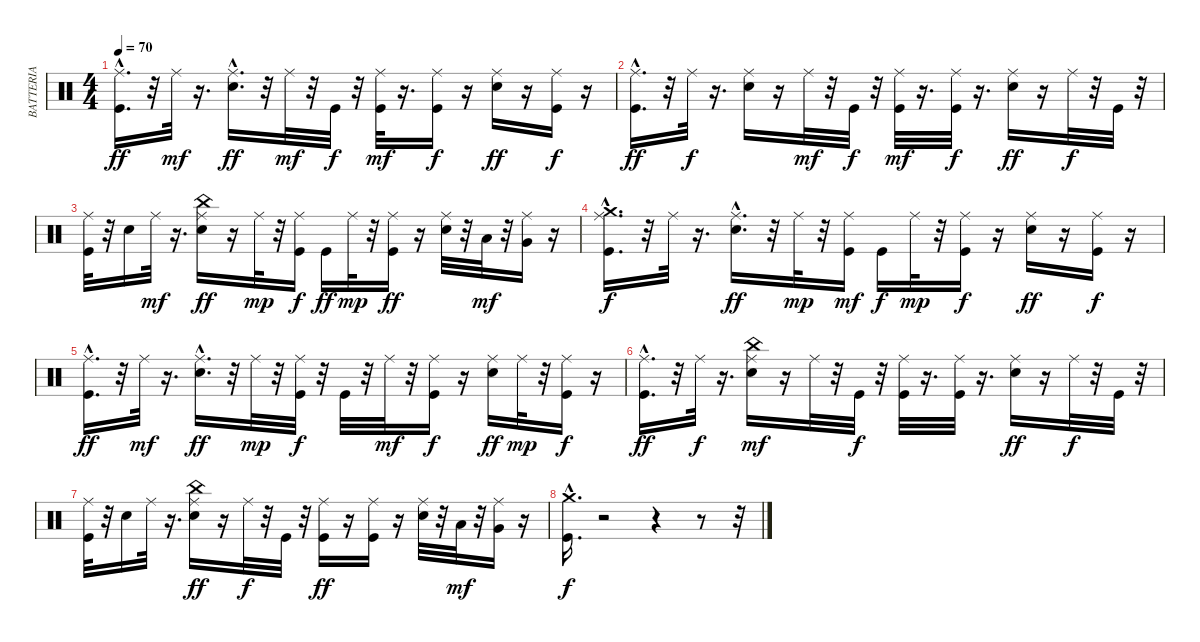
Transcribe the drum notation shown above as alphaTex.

\track ("BATTERIA" "BATTERIA") {instrument percussion}
\staff {score}
\articulation defaults
\ts (4 4)
\tempo 70
\clef neutral
\ks c
("Ride (middle)" "Kick (hit)"{hac}).16{d dy ff} r.32 "Ride (middle)".32{dy mf} r.16{d} ("Ride (middle)" "Snare (hit) 2"{hac}).16{d dy ff} r.32 "Ride (middle)".32{dy mf} r.32 "Kick (hit)".32{dy f} r.32 ("Ride (middle)" "Kick (hit)").32{dy mf} r.16{d} ("Ride (middle)" "Kick (hit)").16{dy f} r.16 ("Ride (middle)" "Snare (hit) 2").16{dy ff} r.16 ("Ride (middle)" "Kick (hit)").16{dy f} r.16 |
("Ride (middle)" "Kick (hit)"{hac}).16{d dy ff} r.32 "Ride (middle)".32{dy f} r.16{d} ("Ride (middle)" "Snare (hit) 2").16 r.16 "Ride (middle)".32{dy mf} r.32 "Kick (hit)".32{dy f} r.32 ("Ride (middle)" "Kick (hit)").32{dy mf} r.16{d} ("Ride (middle)" "Kick (hit)").32{dy f} r.16{d} ("Ride (middle)" "Snare (hit) 2").16{dy ff} r.16 "Ride (middle)".32{dy f} r.32 "Kick (hit)".32 r.32 |
("Ride (middle)" "Kick (hit)").32 r.32 "Snare (hit) 2".16 "Ride (middle)".32{dy mf} r.16{d} ("Ride (middle)" "China (hit)" "Snare (hit) 2").16{dy ff} r.16 "Ride (middle)".32{dy mp} r.32 ("Ride (middle)" "Kick (hit)").16{dy f} "Kick (hit)".16{dy ff} "Ride (middle)".32{dy mp} r.32 ("Ride (middle)" "Kick (hit)").16{dy ff} r.16 ("Ride (middle)" "Snare (hit) 2").32 r.32 "Low Tom (hit)".32{dy mf} r.32 ("Ride (middle)" "Very Low Tom (hit)").16 r.16 |
("Ride (middle)" "Kick (hit)"{hac} "Crash medium (hit)"{hac}).16{d dy f} r.32 "Ride (middle)".32 r.16{d} ("Ride (middle)" "Snare (hit) 2"{hac}).16{d dy ff} r.32 "Ride (middle)".32{dy mp} r.32 ("Ride (middle)" "Kick (hit)").16{dy mf} "Kick (hit)".16{dy f} "Ride (middle)".32{dy mp} r.32 ("Ride (middle)" "Kick (hit)").16{dy f} r.16 ("Ride (middle)" "Snare (hit) 2").16{dy ff} r.16 ("Ride (middle)" "Kick (hit)").16{dy f} r.16 |
("Ride (middle)" "Kick (hit)"{hac}).16{d dy ff} r.32 "Ride (middle)".32{dy mf} r.16{d} ("Ride (middle)" "Snare (hit) 2"{hac}).16{d dy ff} r.32 "Ride (middle)".32{dy mp} r.32 ("Ride (middle)" "Kick (hit)").32{dy f} r.32 "Kick (hit)".32 r.32 "Ride (middle)".32{dy mf} r.32 ("Ride (middle)" "Kick (hit)").16{dy f} r.16 ("Ride (middle)" "Snare (hit) 2").16{dy ff} "Ride (middle)".32{dy mp} r.32 ("Ride (middle)" "Kick (hit)").16{dy f} r.16 |
("Ride (middle)" "Kick (hit)"{hac}).16{d dy ff} r.32 "Ride (middle)".32{dy f} r.16{d} ("Ride (middle)" "China (hit)" "Snare (hit) 2").16{dy mf} r.16 "Ride (middle)".32 r.32 "Kick (hit)".32{dy f} r.32 ("Ride (middle)" "Kick (hit)").32 r.16{d} ("Ride (middle)" "Kick (hit)").32 r.16{d} ("Ride (middle)" "Snare (hit) 2").16{dy ff} r.16 "Ride (middle)".32{dy f} r.32 "Kick (hit)".32 r.32 |
("Ride (middle)" "Kick (hit)").32 r.32 "Snare (hit) 2".16 "Ride (middle)".32 r.16{d} ("Ride (middle)" "China (hit)" "Snare (hit) 2").16{dy ff} r.16 "Ride (middle)".32{dy f} r.32 "Kick (hit)".32 r.32 ("Ride (middle)" "Kick (hit)").16{dy ff} r.16 ("Ride (middle)" "Kick (hit)").16 r.16 ("Ride (middle)" "Snare (hit) 2").32 r.32 "Low Tom (hit)".32{dy mf} r.32 ("Ride (middle)" "Very Low Tom (hit)").16 r.16 |
("Kick (hit)"{hac} "Crash medium (hit)"{hac}).16{d dy f} r.2 r.4 r.8 r.32
